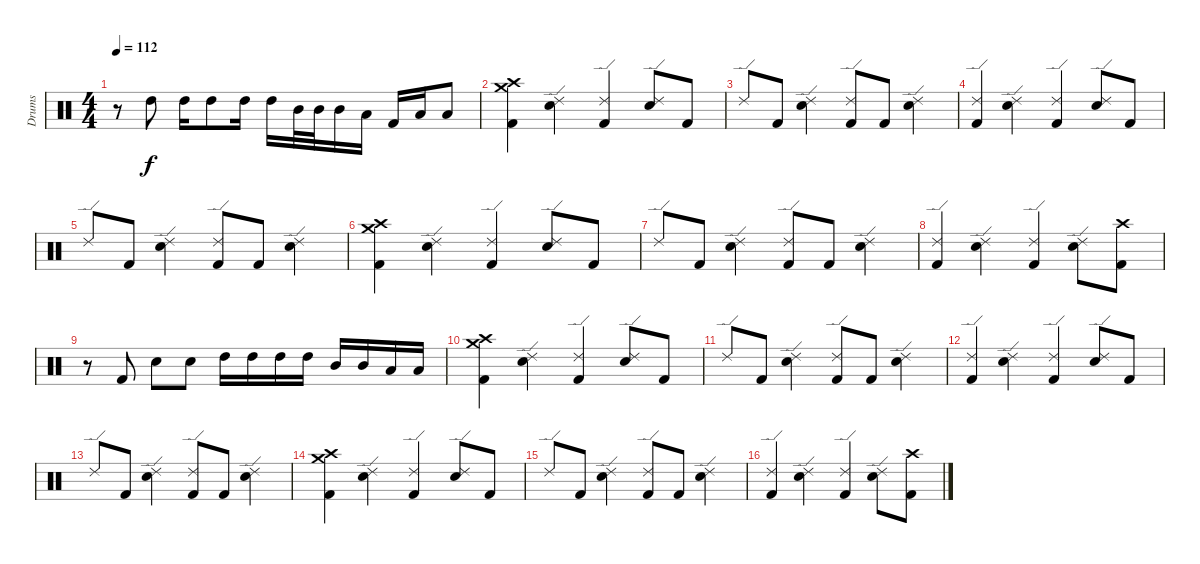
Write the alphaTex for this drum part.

\track ("Drums" "Drums") {instrument percussion}
\staff {score}
\articulation defaults
\ts (4 4)
\tempo 112
\clef neutral
\ks c
r.8{dy f} "High Tom (hit)".8 "High Tom (hit)".16 "High Tom (hit)".8 "High Tom (hit)".16 "High Tom (hit)".16 "Mid Tom (hit)".32 "Mid Tom (hit)".32 "Mid Tom (hit)".16 "Low Tom (hit)".16 "Kick (hit) 2".16 "Low Tom (hit)".16 "Low Tom (hit)".8 |
("Crash medium (hit)" "Crash high (hit)" "Kick (hit) 2").4 ("Ride (edge) 2" "Electric Snare (hit)").4 ("Ride (edge) 2" "Kick (hit) 2").4 ("Ride (edge) 2" "Electric Snare (hit)").8 "Kick (hit) 2".8 |
"Ride (edge) 2".8 "Kick (hit) 2".8 ("Ride (edge) 2" "Electric Snare (hit)").4 ("Ride (edge) 2" "Kick (hit) 2").8 "Kick (hit) 2".8 ("Ride (edge) 2" "Electric Snare (hit)").4 |
("Ride (edge) 2" "Kick (hit) 2").4 ("Ride (edge) 2" "Electric Snare (hit)").4 ("Ride (edge) 2" "Kick (hit) 2").4 ("Ride (edge) 2" "Electric Snare (hit)").8 "Kick (hit) 2".8 |
"Ride (edge) 2".8 "Kick (hit) 2".8 ("Ride (edge) 2" "Electric Snare (hit)").4 ("Ride (edge) 2" "Kick (hit) 2").8 "Kick (hit) 2".8 ("Ride (edge) 2" "Electric Snare (hit)").4 |
("Crash medium (hit)" "Crash high (hit)" "Kick (hit) 2").4 ("Ride (edge) 2" "Electric Snare (hit)").4 ("Ride (edge) 2" "Kick (hit) 2").4 ("Ride (edge) 2" "Electric Snare (hit)").8 "Kick (hit) 2".8 |
"Ride (edge) 2".8 "Kick (hit) 2".8 ("Ride (edge) 2" "Electric Snare (hit)").4 ("Ride (edge) 2" "Kick (hit) 2").8 "Kick (hit) 2".8 ("Ride (edge) 2" "Electric Snare (hit)").4 |
("Ride (edge) 2" "Kick (hit) 2").4 ("Ride (edge) 2" "Electric Snare (hit)").4 ("Ride (edge) 2" "Kick (hit) 2").4 ("Ride (edge) 2" "Electric Snare (hit)").8 ("Crash high (hit)" "Kick (hit) 2").8 |
r.8 "Kick (hit) 2".8 "Electric Snare (hit)".8 "Electric Snare (hit)".8 "High Tom (hit)".16 "High Tom (hit)".16 "High Tom (hit)".16 "High Tom (hit)".16 "Mid Tom (hit)".16 "Mid Tom (hit)".16 "Low Tom (hit)".16 "Low Tom (hit)".16 |
("Crash medium (hit)" "Crash high (hit)" "Kick (hit) 2").4 ("Ride (edge) 2" "Electric Snare (hit)").4 ("Ride (edge) 2" "Kick (hit) 2").4 ("Ride (edge) 2" "Electric Snare (hit)").8 "Kick (hit) 2".8 |
"Ride (edge) 2".8 "Kick (hit) 2".8 ("Ride (edge) 2" "Electric Snare (hit)").4 ("Ride (edge) 2" "Kick (hit) 2").8 "Kick (hit) 2".8 ("Ride (edge) 2" "Electric Snare (hit)").4 |
("Ride (edge) 2" "Kick (hit) 2").4 ("Ride (edge) 2" "Electric Snare (hit)").4 ("Ride (edge) 2" "Kick (hit) 2").4 ("Ride (edge) 2" "Electric Snare (hit)").8 "Kick (hit) 2".8 |
"Ride (edge) 2".8 "Kick (hit) 2".8 ("Ride (edge) 2" "Electric Snare (hit)").4 ("Ride (edge) 2" "Kick (hit) 2").8 "Kick (hit) 2".8 ("Ride (edge) 2" "Electric Snare (hit)").4 |
("Crash medium (hit)" "Crash high (hit)" "Kick (hit) 2").4 ("Ride (edge) 2" "Electric Snare (hit)").4 ("Ride (edge) 2" "Kick (hit) 2").4 ("Ride (edge) 2" "Electric Snare (hit)").8 "Kick (hit) 2".8 |
"Ride (edge) 2".8 "Kick (hit) 2".8 ("Ride (edge) 2" "Electric Snare (hit)").4 ("Ride (edge) 2" "Kick (hit) 2").8 "Kick (hit) 2".8 ("Ride (edge) 2" "Electric Snare (hit)").4 |
("Ride (edge) 2" "Kick (hit) 2").4 ("Ride (edge) 2" "Electric Snare (hit)").4 ("Ride (edge) 2" "Kick (hit) 2").4 ("Ride (edge) 2" "Electric Snare (hit)").8 ("Crash high (hit)" "Kick (hit) 2").8
